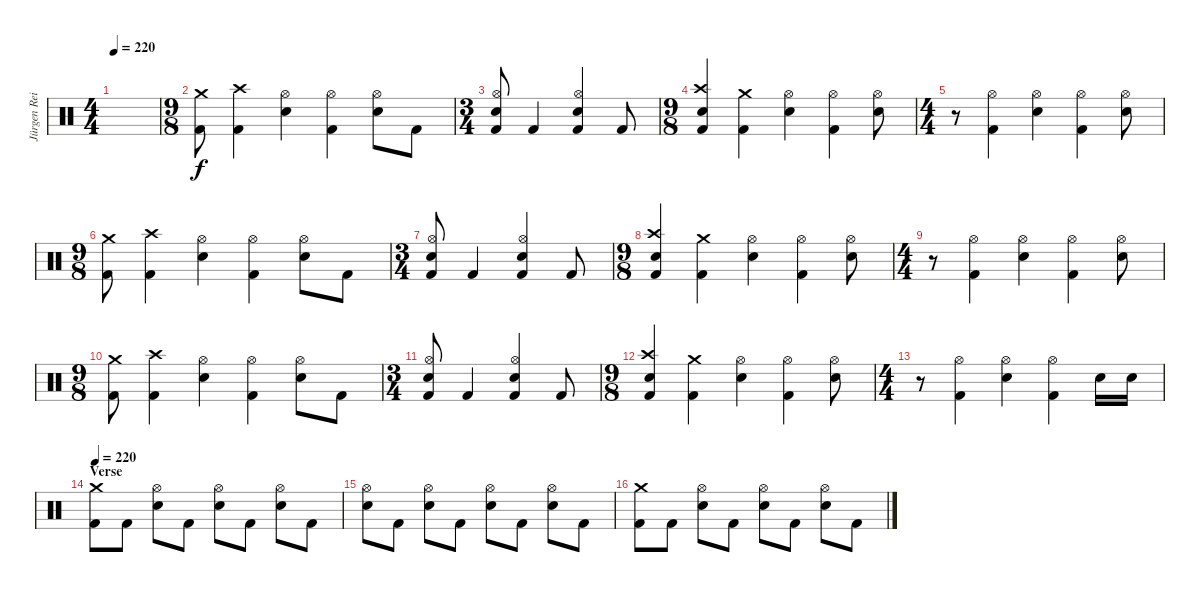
\track ("Jürgen Reil" "Jürgen Rei") {instrument percussion}
\staff {score}
\articulation defaults
\ts (4 4)
\tempo 220
\clef neutral
\ks c
|
\ts (9 8)
("Crash medium (hit)" "Kick (hit) 2").8 ("Crash high (hit)" "Kick (hit) 2").4 ("Hi-Hat (open)" "Electric Snare (hit)").4 ("Hi-Hat (open)" "Kick (hit) 2").4 ("Hi-Hat (open)" "Electric Snare (hit)").8 "Kick (hit) 2".8 |
\ts (3 4)
("Hi-Hat (open)" "Electric Snare (hit)" "Kick (hit) 2").8 "Kick (hit) 2".4 ("Hi-Hat (open)" "Electric Snare (hit)" "Kick (hit) 2").4 "Kick (hit) 2".8 |
\ts (9 8)
("Crash high (hit)" "Electric Snare (hit)" "Kick (hit) 2").4 ("Crash medium (hit)" "Kick (hit) 2").4 ("Hi-Hat (open)" "Electric Snare (hit)").4 ("Hi-Hat (open)" "Kick (hit) 2").4 ("Hi-Hat (open)" "Electric Snare (hit)").8 |
\ts (4 4)
r.8 ("Hi-Hat (open)" "Kick (hit) 2").4 ("Hi-Hat (open)" "Electric Snare (hit)").4 ("Hi-Hat (open)" "Kick (hit) 2").4 ("Hi-Hat (open)" "Electric Snare (hit)").8 |
\ts (9 8)
("Crash medium (hit)" "Kick (hit) 2").8 ("Crash high (hit)" "Kick (hit) 2").4 ("Hi-Hat (open)" "Electric Snare (hit)").4 ("Hi-Hat (open)" "Kick (hit) 2").4 ("Hi-Hat (open)" "Electric Snare (hit)").8 "Kick (hit) 2".8 |
\ts (3 4)
("Hi-Hat (open)" "Electric Snare (hit)" "Kick (hit) 2").8 "Kick (hit) 2".4 ("Hi-Hat (open)" "Electric Snare (hit)" "Kick (hit) 2").4 "Kick (hit) 2".8 |
\ts (9 8)
("Crash high (hit)" "Electric Snare (hit)" "Kick (hit) 2").4 ("Crash medium (hit)" "Kick (hit) 2").4 ("Hi-Hat (open)" "Electric Snare (hit)").4 ("Hi-Hat (open)" "Kick (hit) 2").4 ("Hi-Hat (open)" "Electric Snare (hit)").8 |
\ts (4 4)
r.8 ("Hi-Hat (open)" "Kick (hit) 2").4 ("Hi-Hat (open)" "Electric Snare (hit)").4 ("Hi-Hat (open)" "Kick (hit) 2").4 ("Hi-Hat (open)" "Electric Snare (hit)").8 |
\ts (9 8)
("Crash medium (hit)" "Kick (hit) 2").8 ("Crash high (hit)" "Kick (hit) 2").4 ("Hi-Hat (open)" "Electric Snare (hit)").4 ("Hi-Hat (open)" "Kick (hit) 2").4 ("Hi-Hat (open)" "Electric Snare (hit)").8 "Kick (hit) 2".8 |
\ts (3 4)
("Hi-Hat (open)" "Electric Snare (hit)" "Kick (hit) 2").8 "Kick (hit) 2".4 ("Hi-Hat (open)" "Electric Snare (hit)" "Kick (hit) 2").4 "Kick (hit) 2".8 |
\ts (9 8)
("Crash high (hit)" "Electric Snare (hit)" "Kick (hit) 2").4 ("Crash medium (hit)" "Kick (hit) 2").4 ("Hi-Hat (open)" "Electric Snare (hit)").4 ("Hi-Hat (open)" "Kick (hit) 2").4 ("Hi-Hat (open)" "Electric Snare (hit)").8 |
\ts (4 4)
r.8 ("Hi-Hat (open)" "Kick (hit) 2").4 ("Hi-Hat (open)" "Electric Snare (hit)").4 ("Hi-Hat (open)" "Kick (hit) 2").4 "Electric Snare (hit)".16 "Electric Snare (hit)".16 |
\section ("" "Verse")
\tempo 220
("Crash medium (hit)" "Kick (hit) 2").8 "Kick (hit) 2".8 ("Hi-Hat (open)" "Electric Snare (hit)").8 "Kick (hit) 2".8 ("Hi-Hat (open)" "Electric Snare (hit)").8 "Kick (hit) 2".8 ("Hi-Hat (open)" "Electric Snare (hit)").8 "Kick (hit) 2".8 |
("Hi-Hat (open)" "Electric Snare (hit)").8 "Kick (hit) 2".8 ("Hi-Hat (open)" "Electric Snare (hit)").8 "Kick (hit) 2".8 ("Hi-Hat (open)" "Electric Snare (hit)").8 "Kick (hit) 2".8 ("Hi-Hat (open)" "Electric Snare (hit)").8 "Kick (hit) 2".8 |
("Crash medium (hit)" "Kick (hit) 2").8 "Kick (hit) 2".8 ("Hi-Hat (open)" "Electric Snare (hit)").8 "Kick (hit) 2".8 ("Hi-Hat (open)" "Electric Snare (hit)").8 "Kick (hit) 2".8 ("Hi-Hat (open)" "Electric Snare (hit)").8 "Kick (hit) 2".8
